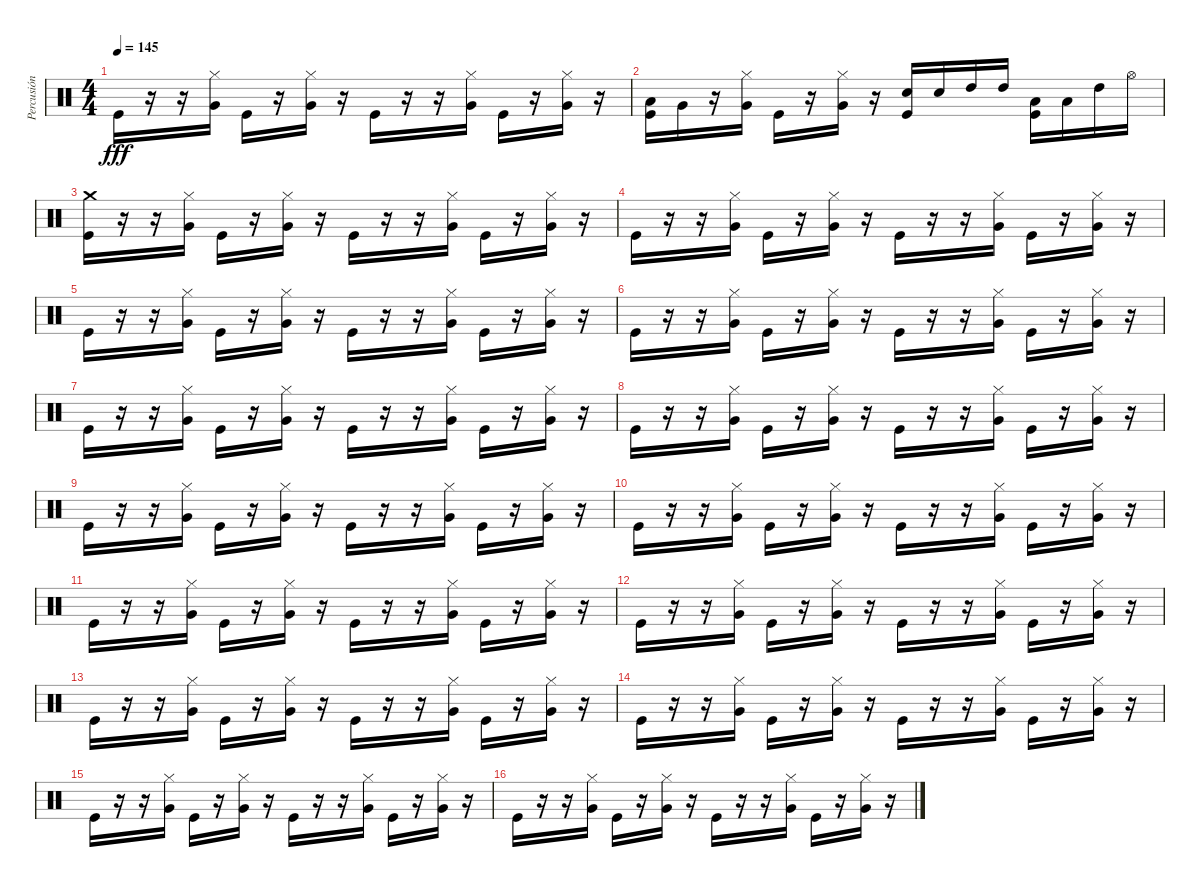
\track ("Percusión" "Percusión") {instrument percussion}
\staff {score}
\articulation defaults
\ts (4 4)
\tempo 145
\clef neutral
\ks c "Kick (hit)".16{dy fff}
r.16 r.16 ("Hi-Hat (closed)" "Very Low Tom (hit)").16 "Kick (hit)".16 r.16 ("Hi-Hat (closed)" "Very Low Tom (hit)").16 r.16 "Kick (hit)".16 r.16 r.16 ("Hi-Hat (closed)" "Very Low Tom (hit)").16 "Kick (hit)".16 r.16 ("Hi-Hat (closed)" "Very Low Tom (hit)").16 r.16 |
("Low Tom (hit)" "Kick (hit)").16 "Very Low Tom (hit)".16 r.16 ("Hi-Hat (closed)" "Very Low Tom (hit)").16 "Kick (hit)".16 r.16 ("Hi-Hat (closed)" "Very Low Tom (hit)").16 r.16 ("Electric Snare (hit)" "Kick (hit)").16 "Electric Snare (hit)".16 "High Tom (hit)".16 "High Tom (hit)".16 ("Low Tom (hit)" "Kick (hit)").16 "Low Tom (hit)".16 "High Tom (hit)".16 "Hi-Hat (open)".16 |
("Crash medium (hit)" "Kick (hit)").16 r.16 r.16 ("Hi-Hat (closed)" "Very Low Tom (hit)").16 "Kick (hit)".16 r.16 ("Hi-Hat (closed)" "Very Low Tom (hit)").16 r.16 "Kick (hit)".16 r.16 r.16 ("Hi-Hat (closed)" "Very Low Tom (hit)").16 "Kick (hit)".16 r.16 ("Hi-Hat (closed)" "Very Low Tom (hit)").16 r.16 |
"Kick (hit)".16 r.16 r.16 ("Hi-Hat (closed)" "Very Low Tom (hit)").16 "Kick (hit)".16 r.16 ("Hi-Hat (closed)" "Very Low Tom (hit)").16 r.16 "Kick (hit)".16 r.16 r.16 ("Hi-Hat (closed)" "Very Low Tom (hit)").16 "Kick (hit)".16 r.16 ("Hi-Hat (closed)" "Very Low Tom (hit)").16 r.16 |
"Kick (hit)".16 r.16 r.16 ("Hi-Hat (closed)" "Very Low Tom (hit)").16 "Kick (hit)".16 r.16 ("Hi-Hat (closed)" "Very Low Tom (hit)").16 r.16 "Kick (hit)".16 r.16 r.16 ("Hi-Hat (closed)" "Very Low Tom (hit)").16 "Kick (hit)".16 r.16 ("Hi-Hat (closed)" "Very Low Tom (hit)").16 r.16 |
"Kick (hit)".16 r.16 r.16 ("Hi-Hat (closed)" "Very Low Tom (hit)").16 "Kick (hit)".16 r.16 ("Hi-Hat (closed)" "Very Low Tom (hit)").16 r.16 "Kick (hit)".16 r.16 r.16 ("Hi-Hat (closed)" "Very Low Tom (hit)").16 "Kick (hit)".16 r.16 ("Hi-Hat (closed)" "Very Low Tom (hit)").16 r.16 |
"Kick (hit)".16 r.16 r.16 ("Hi-Hat (closed)" "Very Low Tom (hit)").16 "Kick (hit)".16 r.16 ("Hi-Hat (closed)" "Very Low Tom (hit)").16 r.16 "Kick (hit)".16 r.16 r.16 ("Hi-Hat (closed)" "Very Low Tom (hit)").16 "Kick (hit)".16 r.16 ("Hi-Hat (closed)" "Very Low Tom (hit)").16 r.16 |
"Kick (hit)".16 r.16 r.16 ("Hi-Hat (closed)" "Very Low Tom (hit)").16 "Kick (hit)".16 r.16 ("Hi-Hat (closed)" "Very Low Tom (hit)").16 r.16 "Kick (hit)".16 r.16 r.16 ("Hi-Hat (closed)" "Very Low Tom (hit)").16 "Kick (hit)".16 r.16 ("Hi-Hat (closed)" "Very Low Tom (hit)").16 r.16 |
"Kick (hit)".16 r.16 r.16 ("Hi-Hat (closed)" "Very Low Tom (hit)").16 "Kick (hit)".16 r.16 ("Hi-Hat (closed)" "Very Low Tom (hit)").16 r.16 "Kick (hit)".16 r.16 r.16 ("Hi-Hat (closed)" "Very Low Tom (hit)").16 "Kick (hit)".16 r.16 ("Hi-Hat (closed)" "Very Low Tom (hit)").16 r.16 |
"Kick (hit)".16 r.16 r.16 ("Hi-Hat (closed)" "Very Low Tom (hit)").16 "Kick (hit)".16 r.16 ("Hi-Hat (closed)" "Very Low Tom (hit)").16 r.16 "Kick (hit)".16 r.16 r.16 ("Hi-Hat (closed)" "Very Low Tom (hit)").16 "Kick (hit)".16 r.16 ("Hi-Hat (closed)" "Very Low Tom (hit)").16 r.16 |
"Kick (hit)".16 r.16 r.16 ("Hi-Hat (closed)" "Very Low Tom (hit)").16 "Kick (hit)".16 r.16 ("Hi-Hat (closed)" "Very Low Tom (hit)").16 r.16 "Kick (hit)".16 r.16 r.16 ("Hi-Hat (closed)" "Very Low Tom (hit)").16 "Kick (hit)".16 r.16 ("Hi-Hat (closed)" "Very Low Tom (hit)").16 r.16 |
"Kick (hit)".16 r.16 r.16 ("Hi-Hat (closed)" "Very Low Tom (hit)").16 "Kick (hit)".16 r.16 ("Hi-Hat (closed)" "Very Low Tom (hit)").16 r.16 "Kick (hit)".16 r.16 r.16 ("Hi-Hat (closed)" "Very Low Tom (hit)").16 "Kick (hit)".16 r.16 ("Hi-Hat (closed)" "Very Low Tom (hit)").16 r.16 |
"Kick (hit)".16 r.16 r.16 ("Hi-Hat (closed)" "Very Low Tom (hit)").16 "Kick (hit)".16 r.16 ("Hi-Hat (closed)" "Very Low Tom (hit)").16 r.16 "Kick (hit)".16 r.16 r.16 ("Hi-Hat (closed)" "Very Low Tom (hit)").16 "Kick (hit)".16 r.16 ("Hi-Hat (closed)" "Very Low Tom (hit)").16 r.16 |
"Kick (hit)".16 r.16 r.16 ("Hi-Hat (closed)" "Very Low Tom (hit)").16 "Kick (hit)".16 r.16 ("Hi-Hat (closed)" "Very Low Tom (hit)").16 r.16 "Kick (hit)".16 r.16 r.16 ("Hi-Hat (closed)" "Very Low Tom (hit)").16 "Kick (hit)".16 r.16 ("Hi-Hat (closed)" "Very Low Tom (hit)").16 r.16 |
"Kick (hit)".16 r.16 r.16 ("Hi-Hat (closed)" "Very Low Tom (hit)").16 "Kick (hit)".16 r.16 ("Hi-Hat (closed)" "Very Low Tom (hit)").16 r.16 "Kick (hit)".16 r.16 r.16 ("Hi-Hat (closed)" "Very Low Tom (hit)").16 "Kick (hit)".16 r.16 ("Hi-Hat (closed)" "Very Low Tom (hit)").16 r.16 |
"Kick (hit)".16 r.16 r.16 ("Hi-Hat (closed)" "Very Low Tom (hit)").16 "Kick (hit)".16 r.16 ("Hi-Hat (closed)" "Very Low Tom (hit)").16 r.16 "Kick (hit)".16 r.16 r.16 ("Hi-Hat (closed)" "Very Low Tom (hit)").16 "Kick (hit)".16 r.16 ("Hi-Hat (closed)" "Very Low Tom (hit)").16 r.16
